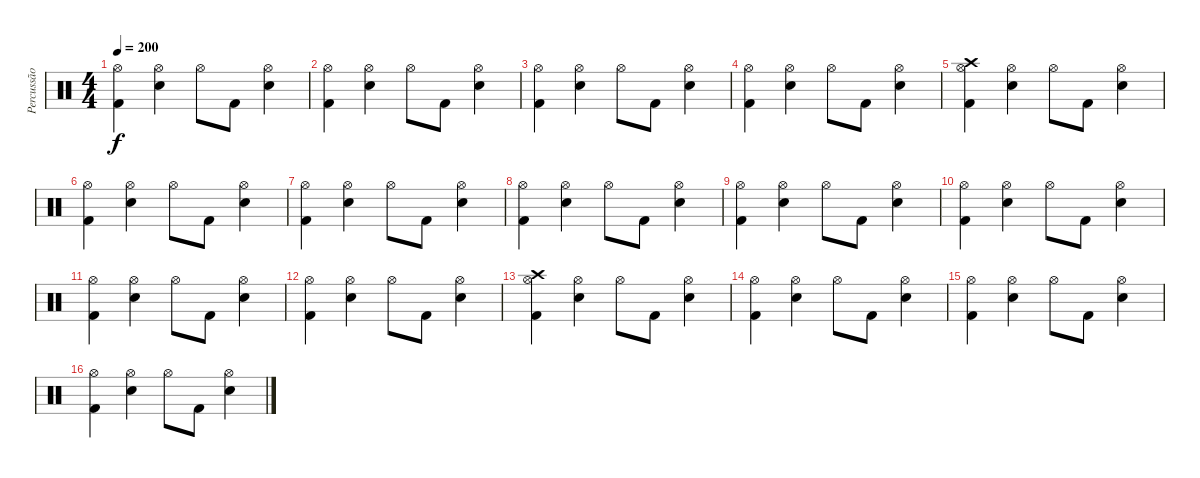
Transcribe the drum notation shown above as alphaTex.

\track ("Percussão" "Percussão") {instrument percussion}
\staff {score}
\articulation defaults
\ts (4 4)
\tempo 200
\clef neutral
\ks c
("Hi-Hat (open)" "Kick (hit) 2").4{dy f} ("Hi-Hat (open)" "Electric Snare (hit)").4 "Hi-Hat (open)".8 "Kick (hit) 2".8 ("Hi-Hat (open)" "Electric Snare (hit)").4 |
("Hi-Hat (open)" "Kick (hit) 2").4 ("Hi-Hat (open)" "Electric Snare (hit)").4 "Hi-Hat (open)".8 "Kick (hit) 2".8 ("Hi-Hat (open)" "Electric Snare (hit)").4 |
("Hi-Hat (open)" "Kick (hit) 2").4 ("Hi-Hat (open)" "Electric Snare (hit)").4 "Hi-Hat (open)".8 "Kick (hit) 2".8 ("Hi-Hat (open)" "Electric Snare (hit)").4 |
("Hi-Hat (open)" "Kick (hit) 2").4 ("Hi-Hat (open)" "Electric Snare (hit)").4 "Hi-Hat (open)".8 "Kick (hit) 2".8 ("Hi-Hat (open)" "Electric Snare (hit)").4 |
("Hi-Hat (open)" "Crash high (hit)" "Kick (hit) 2").4 ("Hi-Hat (open)" "Electric Snare (hit)").4 "Hi-Hat (open)".8 "Kick (hit) 2".8 ("Hi-Hat (open)" "Electric Snare (hit)").4 |
("Hi-Hat (open)" "Kick (hit) 2").4 ("Hi-Hat (open)" "Electric Snare (hit)").4 "Hi-Hat (open)".8 "Kick (hit) 2".8 ("Hi-Hat (open)" "Electric Snare (hit)").4 |
("Hi-Hat (open)" "Kick (hit) 2").4 ("Hi-Hat (open)" "Electric Snare (hit)").4 "Hi-Hat (open)".8 "Kick (hit) 2".8 ("Hi-Hat (open)" "Electric Snare (hit)").4 |
("Hi-Hat (open)" "Kick (hit) 2").4 ("Hi-Hat (open)" "Electric Snare (hit)").4 "Hi-Hat (open)".8 "Kick (hit) 2".8 ("Hi-Hat (open)" "Electric Snare (hit)").4 |
("Hi-Hat (open)" "Kick (hit) 2").4 ("Hi-Hat (open)" "Electric Snare (hit)").4 "Hi-Hat (open)".8 "Kick (hit) 2".8 ("Hi-Hat (open)" "Electric Snare (hit)").4 |
("Hi-Hat (open)" "Kick (hit) 2").4 ("Hi-Hat (open)" "Electric Snare (hit)").4 "Hi-Hat (open)".8 "Kick (hit) 2".8 ("Hi-Hat (open)" "Electric Snare (hit)").4 |
("Hi-Hat (open)" "Kick (hit) 2").4 ("Hi-Hat (open)" "Electric Snare (hit)").4 "Hi-Hat (open)".8 "Kick (hit) 2".8 ("Hi-Hat (open)" "Electric Snare (hit)").4 |
("Hi-Hat (open)" "Kick (hit) 2").4 ("Hi-Hat (open)" "Electric Snare (hit)").4 "Hi-Hat (open)".8 "Kick (hit) 2".8 ("Hi-Hat (open)" "Electric Snare (hit)").4 |
("Hi-Hat (open)" "Crash high (hit)" "Kick (hit) 2").4 ("Hi-Hat (open)" "Electric Snare (hit)").4 "Hi-Hat (open)".8 "Kick (hit) 2".8 ("Hi-Hat (open)" "Electric Snare (hit)").4 |
("Hi-Hat (open)" "Kick (hit) 2").4 ("Hi-Hat (open)" "Electric Snare (hit)").4 "Hi-Hat (open)".8 "Kick (hit) 2".8 ("Hi-Hat (open)" "Electric Snare (hit)").4 |
("Hi-Hat (open)" "Kick (hit) 2").4 ("Hi-Hat (open)" "Electric Snare (hit)").4 "Hi-Hat (open)".8 "Kick (hit) 2".8 ("Hi-Hat (open)" "Electric Snare (hit)").4 |
("Hi-Hat (open)" "Kick (hit) 2").4 ("Hi-Hat (open)" "Electric Snare (hit)").4 "Hi-Hat (open)".8 "Kick (hit) 2".8 ("Hi-Hat (open)" "Electric Snare (hit)").4
